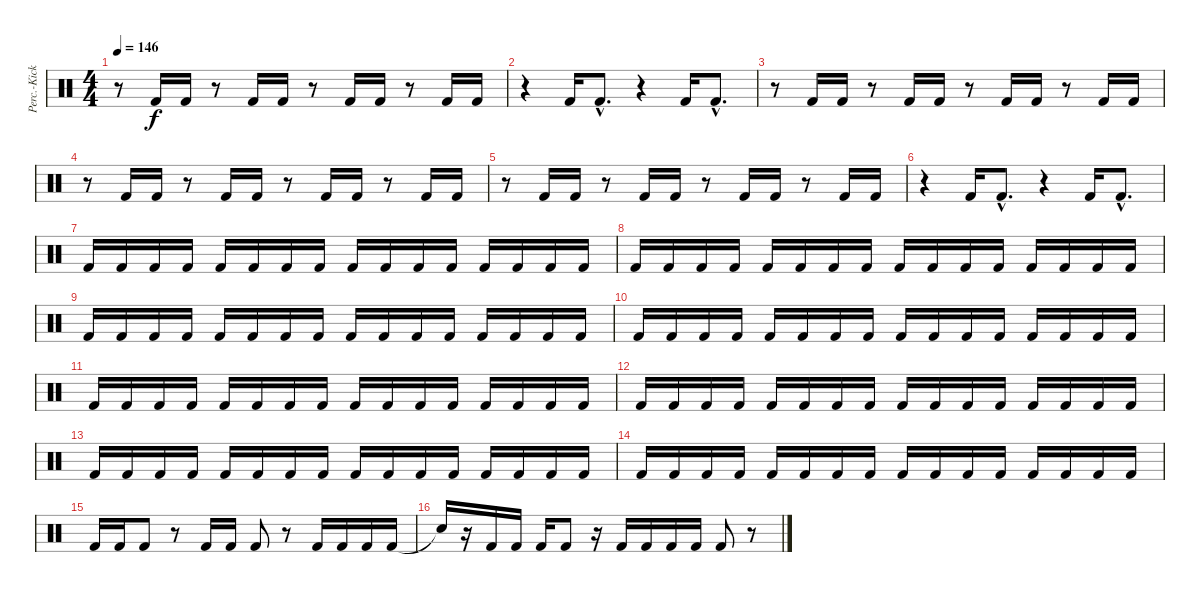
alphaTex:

\track ("Perc.-Kick" "Perc.-Kick") {instrument percussion}
\staff {score}
\articulation defaults
\ts (4 4)
\tempo 146
\clef neutral
\ks c
r.8{dy f} "Kick (hit) 2".16 "Kick (hit) 2".16 r.8 "Kick (hit) 2".16 "Kick (hit) 2".16 r.8 "Kick (hit) 2".16 "Kick (hit) 2".16 r.8 "Kick (hit) 2".16 "Kick (hit) 2".16 |
r.4 "Kick (hit) 2".16 "Kick (hit) 2"{hac}.8{d} r.4 "Kick (hit) 2".16 "Kick (hit) 2"{hac}.8{d} |
r.8 "Kick (hit) 2".16 "Kick (hit) 2".16 r.8 "Kick (hit) 2".16 "Kick (hit) 2".16 r.8 "Kick (hit) 2".16 "Kick (hit) 2".16 r.8 "Kick (hit) 2".16 "Kick (hit) 2".16 |
r.8 "Kick (hit) 2".16 "Kick (hit) 2".16 r.8 "Kick (hit) 2".16 "Kick (hit) 2".16 r.8 "Kick (hit) 2".16 "Kick (hit) 2".16 r.8 "Kick (hit) 2".16 "Kick (hit) 2".16 |
r.8 "Kick (hit) 2".16 "Kick (hit) 2".16 r.8 "Kick (hit) 2".16 "Kick (hit) 2".16 r.8 "Kick (hit) 2".16 "Kick (hit) 2".16 r.8 "Kick (hit) 2".16 "Kick (hit) 2".16 |
r.4 "Kick (hit) 2".16 "Kick (hit) 2"{hac}.8{d} r.4 "Kick (hit) 2".16 "Kick (hit) 2"{hac}.8{d} |
"Kick (hit) 2".16 "Kick (hit) 2".16 "Kick (hit) 2".16 "Kick (hit) 2".16 "Kick (hit) 2".16 "Kick (hit) 2".16 "Kick (hit) 2".16 "Kick (hit) 2".16 "Kick (hit) 2".16 "Kick (hit) 2".16 "Kick (hit) 2".16 "Kick (hit) 2".16 "Kick (hit) 2".16 "Kick (hit) 2".16 "Kick (hit) 2".16 "Kick (hit) 2".16 |
"Kick (hit) 2".16 "Kick (hit) 2".16 "Kick (hit) 2".16 "Kick (hit) 2".16 "Kick (hit) 2".16 "Kick (hit) 2".16 "Kick (hit) 2".16 "Kick (hit) 2".16 "Kick (hit) 2".16 "Kick (hit) 2".16 "Kick (hit) 2".16 "Kick (hit) 2".16 "Kick (hit) 2".16 "Kick (hit) 2".16 "Kick (hit) 2".16 "Kick (hit) 2".16 |
"Kick (hit) 2".16 "Kick (hit) 2".16 "Kick (hit) 2".16 "Kick (hit) 2".16 "Kick (hit) 2".16 "Kick (hit) 2".16 "Kick (hit) 2".16 "Kick (hit) 2".16 "Kick (hit) 2".16 "Kick (hit) 2".16 "Kick (hit) 2".16 "Kick (hit) 2".16 "Kick (hit) 2".16 "Kick (hit) 2".16 "Kick (hit) 2".16 "Kick (hit) 2".16 |
"Kick (hit) 2".16 "Kick (hit) 2".16 "Kick (hit) 2".16 "Kick (hit) 2".16 "Kick (hit) 2".16 "Kick (hit) 2".16 "Kick (hit) 2".16 "Kick (hit) 2".16 "Kick (hit) 2".16 "Kick (hit) 2".16 "Kick (hit) 2".16 "Kick (hit) 2".16 "Kick (hit) 2".16 "Kick (hit) 2".16 "Kick (hit) 2".16 "Kick (hit) 2".16 |
"Kick (hit) 2".16 "Kick (hit) 2".16 "Kick (hit) 2".16 "Kick (hit) 2".16 "Kick (hit) 2".16 "Kick (hit) 2".16 "Kick (hit) 2".16 "Kick (hit) 2".16 "Kick (hit) 2".16 "Kick (hit) 2".16 "Kick (hit) 2".16 "Kick (hit) 2".16 "Kick (hit) 2".16 "Kick (hit) 2".16 "Kick (hit) 2".16 "Kick (hit) 2".16 |
"Kick (hit) 2".16 "Kick (hit) 2".16 "Kick (hit) 2".16 "Kick (hit) 2".16 "Kick (hit) 2".16 "Kick (hit) 2".16 "Kick (hit) 2".16 "Kick (hit) 2".16 "Kick (hit) 2".16 "Kick (hit) 2".16 "Kick (hit) 2".16 "Kick (hit) 2".16 "Kick (hit) 2".16 "Kick (hit) 2".16 "Kick (hit) 2".16 "Kick (hit) 2".16 |
"Kick (hit) 2".16 "Kick (hit) 2".16 "Kick (hit) 2".16 "Kick (hit) 2".16 "Kick (hit) 2".16 "Kick (hit) 2".16 "Kick (hit) 2".16 "Kick (hit) 2".16 "Kick (hit) 2".16 "Kick (hit) 2".16 "Kick (hit) 2".16 "Kick (hit) 2".16 "Kick (hit) 2".16 "Kick (hit) 2".16 "Kick (hit) 2".16 "Kick (hit) 2".16 |
"Kick (hit) 2".16 "Kick (hit) 2".16 "Kick (hit) 2".16 "Kick (hit) 2".16 "Kick (hit) 2".16 "Kick (hit) 2".16 "Kick (hit) 2".16 "Kick (hit) 2".16 "Kick (hit) 2".16 "Kick (hit) 2".16 "Kick (hit) 2".16 "Kick (hit) 2".16 "Kick (hit) 2".16 "Kick (hit) 2".16 "Kick (hit) 2".16 "Kick (hit) 2".16 |
"Kick (hit) 2".16 "Kick (hit) 2".16 "Kick (hit) 2".8 r.8 "Kick (hit) 2".16 "Kick (hit) 2".16 "Kick (hit) 2".8 r.8 "Kick (hit) 2".16 "Kick (hit) 2".16 "Kick (hit) 2".16 "Kick (hit) 2".16 |
"Snare (hit)"{t}.16 r.16 "Kick (hit) 2".16 "Kick (hit) 2".16 "Kick (hit) 2".16 "Kick (hit) 2".8 r.16 "Kick (hit) 2".16 "Kick (hit) 2".16 "Kick (hit) 2".16 "Kick (hit) 2".16 "Kick (hit) 2".8 r.8
